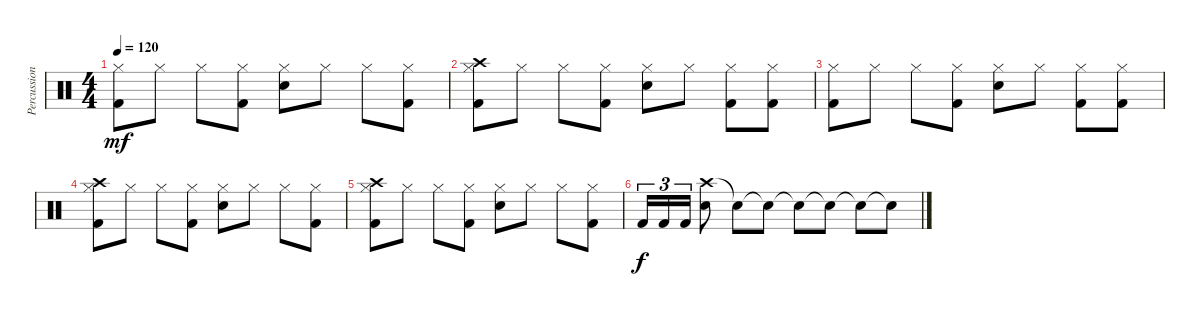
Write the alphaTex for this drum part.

\track ("Percussioni" "Percussion") {instrument percussion}
\staff {score}
\articulation defaults
\ts (4 4)
\tempo 120
\clef neutral
\ks c
("Kick (hit) 2" "Hi-Hat (closed)").8{dy mf} "Hi-Hat (closed)".8 "Hi-Hat (closed)".8 ("Kick (hit) 2" "Hi-Hat (closed)").8 ("Metronome (bell)" "Hi-Hat (closed)").8 "Hi-Hat (closed)".8 "Hi-Hat (closed)".8 ("Kick (hit) 2" "Hi-Hat (closed)").8 |
("Crash high (hit)" "Kick (hit) 2" "Hi-Hat (closed)").8 "Hi-Hat (closed)".8 "Hi-Hat (closed)".8 ("Kick (hit) 2" "Hi-Hat (closed)").8 ("Metronome (bell)" "Hi-Hat (closed)").8 "Hi-Hat (closed)".8 ("Kick (hit) 2" "Hi-Hat (closed)").8 ("Kick (hit) 2" "Hi-Hat (closed)").8 |
("Kick (hit) 2" "Hi-Hat (closed)").8 "Hi-Hat (closed)".8 "Hi-Hat (closed)".8 ("Kick (hit) 2" "Hi-Hat (closed)").8 ("Metronome (bell)" "Hi-Hat (closed)").8 "Hi-Hat (closed)".8 ("Kick (hit) 2" "Hi-Hat (closed)").8 ("Kick (hit) 2" "Hi-Hat (closed)").8 |
("Crash high (hit)" "Kick (hit) 2" "Hi-Hat (closed)").8 "Hi-Hat (closed)".8 "Hi-Hat (closed)".8 ("Kick (hit) 2" "Hi-Hat (closed)").8 ("Metronome (bell)" "Hi-Hat (closed)").8 "Hi-Hat (closed)".8 "Hi-Hat (closed)".8 ("Kick (hit) 2" "Hi-Hat (closed)").8 |
("Crash high (hit)" "Kick (hit) 2" "Hi-Hat (closed)").8 "Hi-Hat (closed)".8 "Hi-Hat (closed)".8 ("Kick (hit) 2" "Hi-Hat (closed)").8 ("Metronome (bell)" "Hi-Hat (closed)").8 "Hi-Hat (closed)".8 "Hi-Hat (closed)".8 ("Kick (hit) 2" "Hi-Hat (closed)").8 |
"Kick (hit) 2".16{tu (3 2) dy f} "Kick (hit) 2".16{tu (3 2)} "Kick (hit) 2".16{tu (3 2)} ("Crash high (hit)" "Metronome (bell)").8 "Snare (hit)"{t}.8 "Snare (hit)"{t}.8 "Snare (hit)"{t}.8 "Snare (hit)"{t}.8 "Snare (hit)"{t}.8 "Snare (hit)"{t}.8
